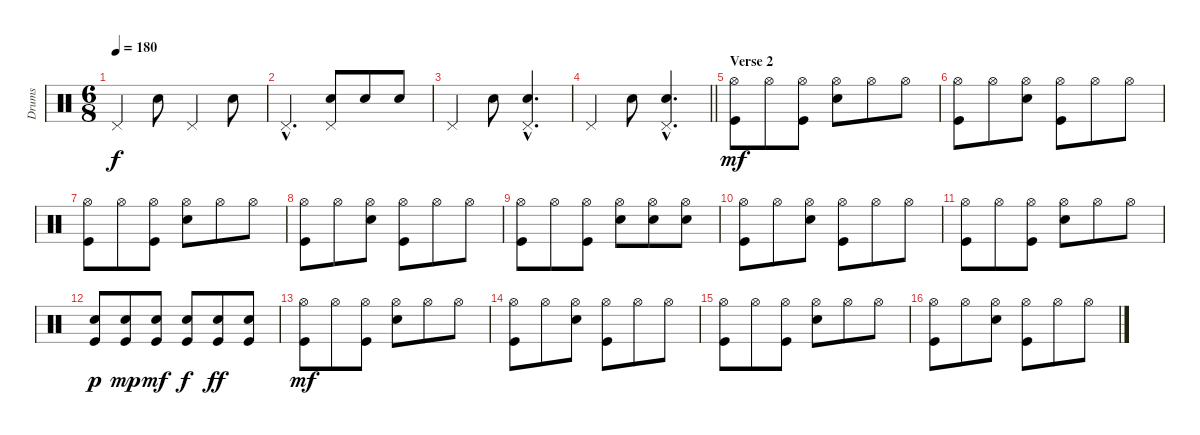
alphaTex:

\track ("Drums" "Drums") {instrument percussion}
\staff {score}
\articulation defaults
\ts (6 8)
\tempo 180
\clef neutral
\ks c "Pedal Hi-Hat (hit)".4{dy f} "Electric Snare (hit)".8 "Pedal Hi-Hat (hit)".4 "Electric Snare (hit)".8
|
"Pedal Hi-Hat (hit)"{hac}.4{d} ("Pedal Hi-Hat (hit)" "Electric Snare (hit)").8 "Electric Snare (hit)".8 "Electric Snare (hit)".8 |
"Pedal Hi-Hat (hit)".4 "Electric Snare (hit)".8 ("Pedal Hi-Hat (hit)"{hac} "Electric Snare (hit)"{hac}).4{d} |
\barLineRight lightlight "Pedal Hi-Hat (hit)".4 "Electric Snare (hit)".8
("Pedal Hi-Hat (hit)"{hac} "Electric Snare (hit)"{hac}).4{d} |
\section ("" "Verse 2")
("Hi-Hat (open)" "Kick (hit)").8{dy mf} "Hi-Hat (open)".8 ("Hi-Hat (open)" "Kick (hit)").8 ("Hi-Hat (open)" "Electric Snare (hit)").8 "Hi-Hat (open)".8 "Hi-Hat (open)".8 |
("Hi-Hat (open)" "Kick (hit)").8 "Hi-Hat (open)".8 ("Hi-Hat (open)" "Electric Snare (hit)").8 ("Hi-Hat (open)" "Kick (hit)").8 "Hi-Hat (open)".8 "Hi-Hat (open)".8 |
("Hi-Hat (open)" "Kick (hit)").8 "Hi-Hat (open)".8 ("Hi-Hat (open)" "Kick (hit)").8 ("Hi-Hat (open)" "Electric Snare (hit)").8 "Hi-Hat (open)".8 "Hi-Hat (open)".8 |
("Hi-Hat (open)" "Kick (hit)").8 "Hi-Hat (open)".8 ("Hi-Hat (open)" "Electric Snare (hit)").8 ("Hi-Hat (open)" "Kick (hit)").8 "Hi-Hat (open)".8 "Hi-Hat (open)".8 |
("Hi-Hat (open)" "Kick (hit)").8 "Hi-Hat (open)".8 ("Hi-Hat (open)" "Kick (hit)").8 ("Hi-Hat (open)" "Electric Snare (hit)").8 ("Hi-Hat (open)" "Electric Snare (hit)").8 ("Hi-Hat (open)" "Electric Snare (hit)").8 |
("Hi-Hat (open)" "Kick (hit)").8 "Hi-Hat (open)".8 ("Hi-Hat (open)" "Electric Snare (hit)").8 ("Hi-Hat (open)" "Kick (hit)").8 "Hi-Hat (open)".8 "Hi-Hat (open)".8 |
("Hi-Hat (open)" "Kick (hit)").8 "Hi-Hat (open)".8 ("Hi-Hat (open)" "Kick (hit)").8 ("Hi-Hat (open)" "Electric Snare (hit)").8 "Hi-Hat (open)".8 "Hi-Hat (open)".8 |
("Electric Snare (hit)" "Kick (hit)").8{dy p} ("Electric Snare (hit)" "Kick (hit)").8{dy mp} ("Electric Snare (hit)" "Kick (hit)").8{dy mf} ("Electric Snare (hit)" "Kick (hit)").8{dy f} ("Electric Snare (hit)" "Kick (hit)").8{dy ff} ("Electric Snare (hit)" "Kick (hit)").8 |
("Hi-Hat (open)" "Kick (hit)").8{dy mf} "Hi-Hat (open)".8 ("Hi-Hat (open)" "Kick (hit)").8 ("Hi-Hat (open)" "Electric Snare (hit)").8 "Hi-Hat (open)".8 "Hi-Hat (open)".8 |
("Hi-Hat (open)" "Kick (hit)").8 "Hi-Hat (open)".8 ("Hi-Hat (open)" "Electric Snare (hit)").8 ("Hi-Hat (open)" "Kick (hit)").8 "Hi-Hat (open)".8 "Hi-Hat (open)".8 |
("Hi-Hat (open)" "Kick (hit)").8 "Hi-Hat (open)".8 ("Hi-Hat (open)" "Kick (hit)").8 ("Hi-Hat (open)" "Electric Snare (hit)").8 "Hi-Hat (open)".8 "Hi-Hat (open)".8 |
("Hi-Hat (open)" "Kick (hit)").8 "Hi-Hat (open)".8 ("Hi-Hat (open)" "Electric Snare (hit)").8 ("Hi-Hat (open)" "Kick (hit)").8 "Hi-Hat (open)".8 "Hi-Hat (open)".8
